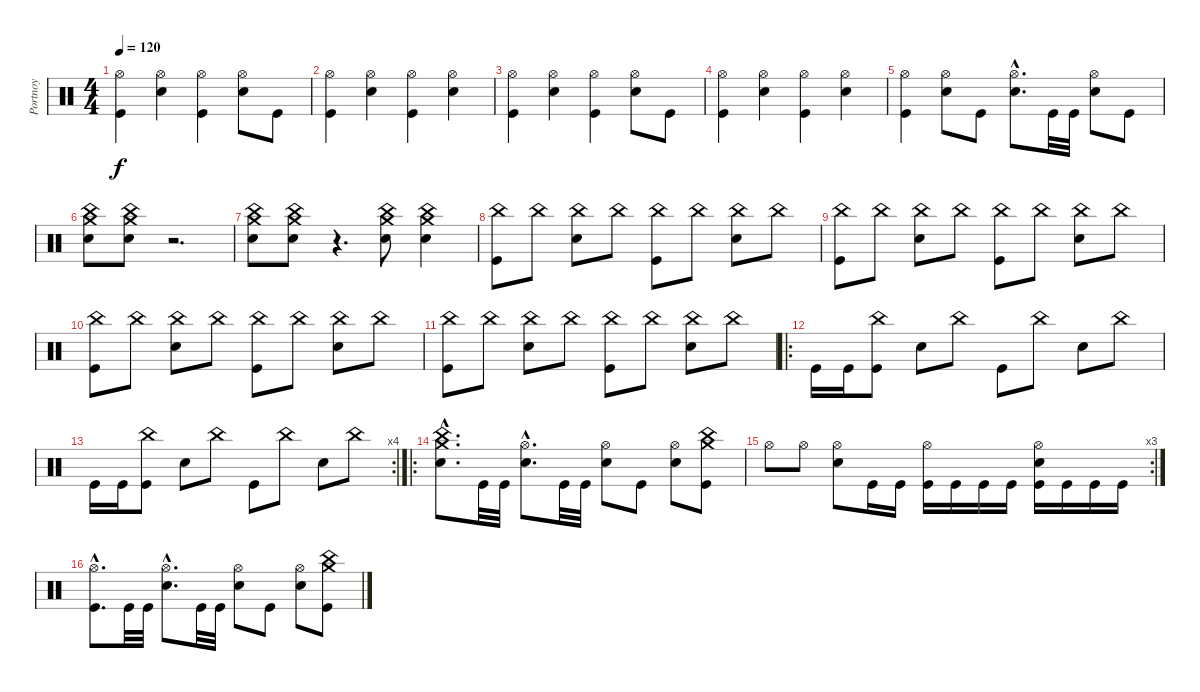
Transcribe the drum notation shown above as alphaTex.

\track ("Portnoy" "Portnoy") {instrument percussion}
\staff {score}
\articulation defaults
\ts (4 4)
\tempo 120
\clef neutral
\ks c
("Hi-Hat (open)" "Kick (hit)").4{dy f} ("Hi-Hat (open)" "Snare (hit) 2").4 ("Hi-Hat (open)" "Kick (hit)").4 ("Hi-Hat (open)" "Snare (hit) 2").8 "Kick (hit)".8 |
("Hi-Hat (open)" "Kick (hit)").4 ("Hi-Hat (open)" "Snare (hit) 2").4 ("Hi-Hat (open)" "Kick (hit)").4 ("Hi-Hat (open)" "Snare (hit) 2").4 |
("Hi-Hat (open)" "Kick (hit)").4 ("Hi-Hat (open)" "Snare (hit) 2").4 ("Hi-Hat (open)" "Kick (hit)").4 ("Hi-Hat (open)" "Snare (hit) 2").8 "Kick (hit)".8 |
("Hi-Hat (open)" "Kick (hit)").4 ("Hi-Hat (open)" "Snare (hit) 2").4 ("Hi-Hat (open)" "Kick (hit)").4 ("Hi-Hat (open)" "Snare (hit) 2").4 |
("Hi-Hat (open)" "Kick (hit)").4 ("Hi-Hat (open)" "Snare (hit) 2").8 "Kick (hit)".8 ("Hi-Hat (open)"{hac} "Snare (hit) 2"{hac}).8{d} "Kick (hit)".32 "Kick (hit)".32 ("Hi-Hat (open)" "Snare (hit) 2").8 "Kick (hit)".8 |
("Crash medium (hit)" "Snare (hit) 2" "China (hit)").8 ("Crash medium (hit)" "Snare (hit) 2" "China (hit)").8 r.2{d} |
("Crash medium (hit)" "Snare (hit) 2" "China (hit)").8 ("Crash medium (hit)" "Snare (hit) 2" "China (hit)").8 r.4{d} ("Crash medium (hit)" "Snare (hit) 2" "China (hit)").8 ("Crash medium (hit)" "Snare (hit) 2" "China (hit)").4 |
("China (hit)" "Kick (hit)").8 "China (hit)".8 ("China (hit)" "Snare (hit) 2").8 "China (hit)".8 ("China (hit)" "Kick (hit)").8 "China (hit)".8 ("China (hit)" "Snare (hit) 2").8 "China (hit)".8 |
("China (hit)" "Kick (hit)").8 "China (hit)".8 ("China (hit)" "Snare (hit) 2").8 "China (hit)".8 ("China (hit)" "Kick (hit)").8 "China (hit)".8 ("China (hit)" "Snare (hit) 2").8 "China (hit)".8 |
("China (hit)" "Kick (hit)").8 "China (hit)".8 ("China (hit)" "Snare (hit) 2").8 "China (hit)".8 ("China (hit)" "Kick (hit)").8 "China (hit)".8 ("China (hit)" "Snare (hit) 2").8 "China (hit)".8 |
("China (hit)" "Kick (hit)").8 "China (hit)".8 ("China (hit)" "Snare (hit) 2").8 "China (hit)".8 ("China (hit)" "Kick (hit)").8 "China (hit)".8 ("China (hit)" "Snare (hit) 2").8 "China (hit)".8 |
\ro "Kick (hit)".16 "Kick (hit)".16
("China (hit)" "Kick (hit)").8 "Snare (hit) 2".8 "China (hit)".8 "Kick (hit)".8 "China (hit)".8 "Snare (hit) 2".8 "China (hit)".8 |
\rc 4 "Kick (hit)".16 "Kick (hit)".16
("China (hit)" "Kick (hit)").8 "Snare (hit) 2".8 "China (hit)".8 "Kick (hit)".8 "China (hit)".8 "Snare (hit) 2".8 "China (hit)".8 |
\ro
("Crash medium (hit)"{hac} "Snare (hit) 2"{hac} "China (hit)"{hac}).8{d} "Kick (hit)".32 "Kick (hit)".32 ("Hi-Hat (open)"{hac} "Snare (hit) 2"{hac}).8{d} "Kick (hit)".32 "Kick (hit)".32 ("Hi-Hat (open)" "Snare (hit) 2").8 "Kick (hit)".8 ("Hi-Hat (open)" "Snare (hit) 2").8 ("Crash medium (hit)" "Kick (hit)" "China (hit)").8 |
\rc 3 "Hi-Hat (open)".8 "Hi-Hat (open)".8
("Hi-Hat (open)" "Snare (hit) 2").8 "Kick (hit)".16 "Kick (hit)".16 ("Hi-Hat (open)" "Kick (hit)").16 "Kick (hit)".16 "Kick (hit)".16 "Kick (hit)".16 ("Hi-Hat (open)" "Kick (hit)" "Snare (hit) 2").16 "Kick (hit)".16 "Kick (hit)".16 "Kick (hit)".16 |
("Hi-Hat (open)"{hac} "Kick (hit)"{hac}).8{d} "Kick (hit)".32 "Kick (hit)".32 ("Hi-Hat (open)"{hac} "Snare (hit) 2"{hac}).8{d} "Kick (hit)".32 "Kick (hit)".32 ("Hi-Hat (open)" "Snare (hit) 2").8 "Kick (hit)".8 ("Hi-Hat (open)" "Snare (hit) 2").8 ("Crash medium (hit)" "Kick (hit)" "China (hit)").8
